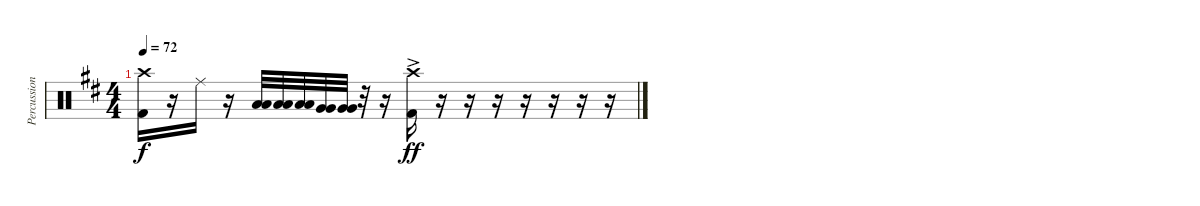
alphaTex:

\track ("Percussion" "Percussion") {instrument percussion}
\staff {score}
\articulation defaults
\ts (4 4)
\tempo 72
\clef neutral
\ks d
("Crash high (hit)" "Kick (hit) 2").16{dy f} r.16 "Ride (middle)".16 r.16 ("Low Tom (hit)" "Low Tom (hit)").32 ("Low Tom (hit)" "Low Tom (hit)").32 ("Low Tom (hit)" "Low Tom (hit)").32 ("Very Low Tom (hit)" "Very Low Tom (hit)").32 ("Very Low Tom (hit)" "Very Low Tom (hit)").32 r.32 r.16 ("Crash high (hit)"{ac} "Kick (hit) 2"{ac}).16{dy ff} r.16 r.16 r.16 r.16 r.16 r.16 r.16
